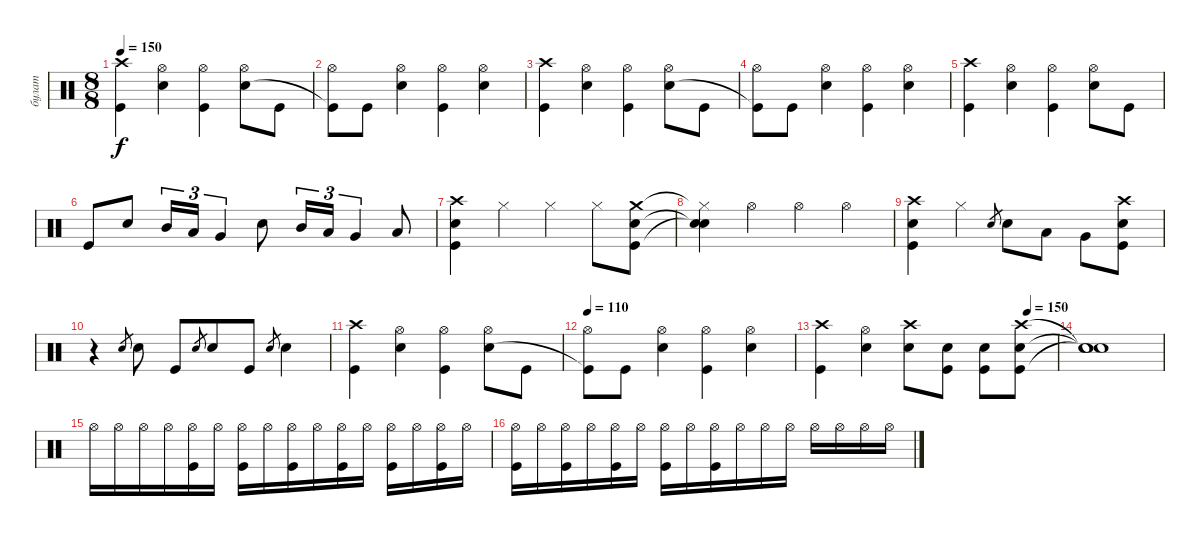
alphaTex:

\track ("булат" "булат") {instrument percussion}
\staff {score}
\articulation defaults
\ts (8 8)
\tempo 150
\clef neutral
\ks c
("Crash high (hit)" "Kick (hit)").4{dy f} ("Hi-Hat (open)" "Snare (hit) 2").4 ("Hi-Hat (open)" "Kick (hit)").4 ("Hi-Hat (open)" "Snare (hit) 2").8 "Kick (hit)".8 |
("Hi-Hat (open)" "Kick (hit)"{t}).8 "Kick (hit)".8 ("Hi-Hat (open)" "Snare (hit) 2").4 ("Hi-Hat (open)" "Kick (hit)").4 ("Hi-Hat (open)" "Snare (hit) 2").4 |
("Crash high (hit)" "Kick (hit)").4 ("Hi-Hat (open)" "Snare (hit) 2").4 ("Hi-Hat (open)" "Kick (hit)").4 ("Hi-Hat (open)" "Snare (hit) 2").8 "Kick (hit)".8 |
("Hi-Hat (open)" "Kick (hit)"{t}).8 "Kick (hit)".8 ("Hi-Hat (open)" "Snare (hit) 2").4 ("Hi-Hat (open)" "Kick (hit)").4 ("Hi-Hat (open)" "Snare (hit) 2").4 |
("Crash high (hit)" "Kick (hit)").4 ("Hi-Hat (open)" "Snare (hit) 2").4 ("Hi-Hat (open)" "Kick (hit)").4 ("Hi-Hat (open)" "Snare (hit) 2").8 "Kick (hit)".8 |
"Kick (hit)".8 "Snare (hit) 2".8 "Mid Tom (hit)".16{tu (3 2)} "Low Tom (hit)".16{tu (3 2)} "Very Low Tom (hit)".4{tu (3 2)} "Snare (hit) 2".8 "Mid Tom (hit)".16{tu (3 2)} "Low Tom (hit)".16{tu (3 2)} "Very Low Tom (hit)".4{tu (3 2)} "Low Floor Tom (hit)".8 |
("Crash high (hit)" "Kick (hit)" "Snare (hit) 2").4 "Hi-Hat (closed)".4 "Hi-Hat (closed)".4 "Hi-Hat (closed)".8 ("Crash medium (hit)" "Snare (hit) 2" "Kick (hit)").8 |
("Hi-Hat (closed)"{t} "Snare (hit)"{t} "Snare (hit)"{t}).4 "Hi-Hat (open)".4 "Hi-Hat (open)".4 "Hi-Hat (open)".4 |
("Crash high (hit)" "Snare (hit) 2" "Kick (hit)").4 "Hi-Hat (closed)".4 "Snare (hit) 2".8{gr} "Snare (hit) 2".8 "Low Tom (hit)".8 "Very Low Tom (hit)".8 ("Crash high (hit)" "Snare (hit) 2" "Kick (hit)").8 |
r.4 "Snare (hit) 2".8{gr} "Snare (hit) 2".8 "Kick (hit)".8 "Snare (hit) 2".8{gr} "Snare (hit) 2".8 "Kick (hit)".8 "Snare (hit) 2".8{gr} "Snare (hit) 2".4 |
("Crash high (hit)" "Kick (hit)").4 ("Hi-Hat (open)" "Snare (hit) 2").4 ("Hi-Hat (open)" "Kick (hit)").4 ("Hi-Hat (open)" "Snare (hit) 2").8 "Kick (hit)".8 |
\tempo 110
("Hi-Hat (open)" "Kick (hit)"{t}).8 "Kick (hit)".8 ("Hi-Hat (open)" "Snare (hit) 2").4 ("Hi-Hat (open)" "Kick (hit)").4 ("Hi-Hat (open)" "Snare (hit) 2").4 |
\tempo (150 0.875)
("Crash high (hit)" "Kick (hit)").4 ("Hi-Hat (open)" "Snare (hit) 2").4 ("Crash high (hit)" "Snare (hit) 2").8 ("Snare (hit) 2" "Kick (hit)").8 ("Snare (hit) 2" "Kick (hit)").8 ("Crash high (hit)" "Snare (hit) 2" "Kick (hit)").8 |
("Snare (hit)"{t} "Snare (hit)"{t} "Snare (hit)"{t}).1 |
"Hi-Hat (open)".16{volume 9} "Hi-Hat (open)".16{volume 15} "Hi-Hat (open)".16 "Hi-Hat (open)".16 ("Hi-Hat (open)" "Kick (hit)").16 "Hi-Hat (open)".16 ("Hi-Hat (open)" "Kick (hit)").16 "Hi-Hat (open)".16 ("Hi-Hat (open)" "Kick (hit)").16 "Hi-Hat (open)".16 ("Hi-Hat (open)" "Kick (hit)").16 "Hi-Hat (open)".16 ("Hi-Hat (open)" "Kick (hit)").16 "Hi-Hat (open)".16 ("Hi-Hat (open)" "Kick (hit)").16 "Hi-Hat (open)".16 |
("Hi-Hat (open)" "Kick (hit)").16 "Hi-Hat (open)".16 ("Hi-Hat (open)" "Kick (hit)").16 "Hi-Hat (open)".16 ("Hi-Hat (open)" "Kick (hit)").16 "Hi-Hat (open)".16 ("Hi-Hat (open)" "Kick (hit)").16 "Hi-Hat (open)".16 ("Hi-Hat (open)" "Kick (hit)").16 "Hi-Hat (open)".16 "Hi-Hat (open)".16 "Hi-Hat (open)".16 "Hi-Hat (open)".16 "Hi-Hat (open)".16 "Hi-Hat (open)".16 "Hi-Hat (open)".16
